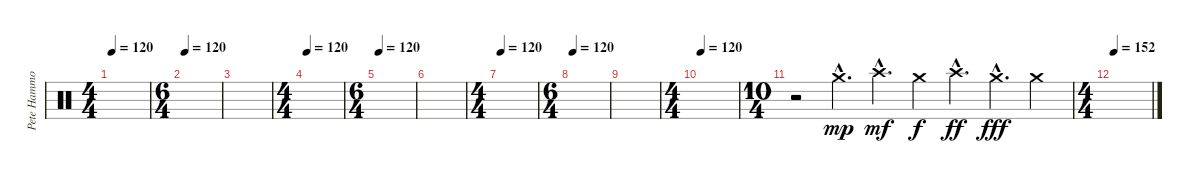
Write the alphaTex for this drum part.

\track ("Pete Hammoura 2" "Pete Hammo") {instrument percussion}
\staff {score}
\articulation defaults
\ts (4 4)
\tempo 120
\clef neutral
\ks c
|
\ts (6 4)
\tempo 120
|
|
\ts (4 4)
\tempo 120
|
\ts (6 4)
\tempo 120
|
|
\ts (4 4)
\tempo 120
|
\ts (6 4)
\tempo 120
|
|
\ts (4 4)
\tempo 120
|
\ts (10 4)
r.2 "Crash medium (hit)"{hac}.4{d dy mp} "Crash high (hit)"{hac}.4{d dy mf} "Crash medium (hit)".4{dy f} "Crash high (hit)"{hac}.4{d dy ff} "Crash medium (hit)"{hac}.4{d dy fff} "Crash medium (hit)".4 |
\ts (4 4)
\tempo 152
